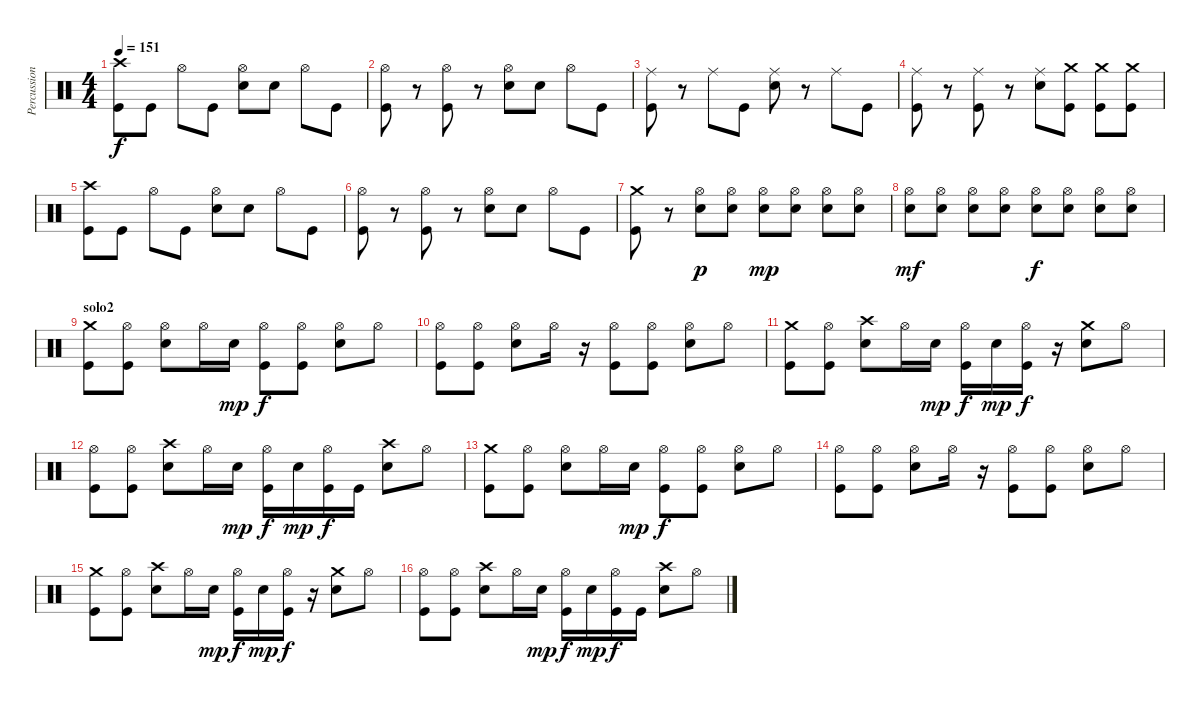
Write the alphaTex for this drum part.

\track ("Percussion" "Percussion") {instrument percussion}
\staff {score}
\articulation defaults
\ts (4 4)
\tempo 151
\clef neutral
\ks c
("Crash high (hit)" "Kick (hit)").8{dy f} "Kick (hit)".8 "Hi-Hat (open)".8 "Kick (hit)".8 ("Hi-Hat (open)" "Electric Snare (hit)").8 "Electric Snare (hit)".8 "Hi-Hat (open)".8 "Kick (hit)".8 |
("Hi-Hat (open)" "Kick (hit)").8 r.8 ("Hi-Hat (open)" "Kick (hit)").8 r.8 ("Hi-Hat (open)" "Electric Snare (hit)").8 "Electric Snare (hit)".8 "Hi-Hat (open)".8 "Kick (hit)".8 |
("Ride (middle)" "Kick (hit)").8 r.8 "Ride (middle)".8 "Kick (hit)".8 ("Ride (middle)" "Electric Snare (hit)").8 r.8 "Ride (middle)".8 "Kick (hit)".8 |
("Ride (middle)" "Kick (hit)").8 r.8 ("Ride (middle)" "Kick (hit)").8 r.8 ("Ride (middle)" "Electric Snare (hit)").8 ("Crash medium (hit)" "Kick (hit)").8 ("Crash medium (hit)" "Kick (hit)").8 ("Crash medium (hit)" "Kick (hit)").8 |
("Crash high (hit)" "Kick (hit)").8 "Kick (hit)".8 "Hi-Hat (open)".8 "Kick (hit)".8 ("Hi-Hat (open)" "Electric Snare (hit)").8 "Electric Snare (hit)".8 "Hi-Hat (open)".8 "Kick (hit)".8 |
("Hi-Hat (open)" "Kick (hit)").8 r.8 ("Hi-Hat (open)" "Kick (hit)").8 r.8 ("Hi-Hat (open)" "Electric Snare (hit)").8 "Electric Snare (hit)".8 "Hi-Hat (open)".8 "Kick (hit)".8 |
("Crash medium (hit)" "Kick (hit)").8 r.8 ("Hi-Hat (open)" "Electric Snare (hit)").8{dy p} ("Hi-Hat (open)" "Electric Snare (hit)").8 ("Hi-Hat (open)" "Electric Snare (hit)").8{dy mp} ("Hi-Hat (open)" "Electric Snare (hit)").8 ("Hi-Hat (open)" "Electric Snare (hit)").8 ("Hi-Hat (open)" "Electric Snare (hit)").8 |
("Hi-Hat (open)" "Electric Snare (hit)").8{dy mf} ("Hi-Hat (open)" "Electric Snare (hit)").8 ("Hi-Hat (open)" "Electric Snare (hit)").8 ("Hi-Hat (open)" "Electric Snare (hit)").8 ("Hi-Hat (open)" "Electric Snare (hit)").8{dy f} ("Hi-Hat (open)" "Electric Snare (hit)").8 ("Hi-Hat (open)" "Electric Snare (hit)").8 ("Hi-Hat (open)" "Electric Snare (hit)").8 |
\section ("" "solo2")
("Crash medium (hit)" "Kick (hit)").8 ("Hi-Hat (open)" "Kick (hit)").8 ("Hi-Hat (open)" "Electric Snare (hit)").8 "Hi-Hat (open)".16 "Electric Snare (hit)".16{dy mp} ("Hi-Hat (open)" "Kick (hit)").8{dy f} ("Hi-Hat (open)" "Kick (hit)").8 ("Hi-Hat (open)" "Electric Snare (hit)").8 "Hi-Hat (open)".8 |
("Hi-Hat (open)" "Kick (hit)").8 ("Hi-Hat (open)" "Kick (hit)").8 ("Hi-Hat (open)" "Electric Snare (hit)").8 "Hi-Hat (open)".16 r.16 ("Hi-Hat (open)" "Kick (hit)").8 ("Hi-Hat (open)" "Kick (hit)").8 ("Hi-Hat (open)" "Electric Snare (hit)").8 "Hi-Hat (open)".8 |
("Crash medium (hit)" "Kick (hit)").8 ("Hi-Hat (open)" "Kick (hit)").8 ("Crash high (hit)" "Electric Snare (hit)").8 "Hi-Hat (open)".16 "Electric Snare (hit)".16{dy mp} ("Hi-Hat (open)" "Kick (hit)").16{dy f} "Electric Snare (hit)".16{dy mp} ("Hi-Hat (open)" "Kick (hit)").16{dy f} r.16 ("Crash medium (hit)" "Electric Snare (hit)").8 "Hi-Hat (open)".8 |
("Hi-Hat (open)" "Kick (hit)").8 ("Hi-Hat (open)" "Kick (hit)").8 ("Crash high (hit)" "Electric Snare (hit)").8 "Hi-Hat (open)".16 "Electric Snare (hit)".16{dy mp} ("Hi-Hat (open)" "Kick (hit)").16{dy f} "Electric Snare (hit)".16{dy mp} ("Hi-Hat (open)" "Kick (hit)").16{dy f} "Kick (hit)".16 ("Crash high (hit)" "Electric Snare (hit)").8 "Hi-Hat (open)".8 |
("Crash medium (hit)" "Kick (hit)").8 ("Hi-Hat (open)" "Kick (hit)").8 ("Hi-Hat (open)" "Electric Snare (hit)").8 "Hi-Hat (open)".16 "Electric Snare (hit)".16{dy mp} ("Hi-Hat (open)" "Kick (hit)").8{dy f} ("Hi-Hat (open)" "Kick (hit)").8 ("Hi-Hat (open)" "Electric Snare (hit)").8 "Hi-Hat (open)".8 |
("Hi-Hat (open)" "Kick (hit)").8 ("Hi-Hat (open)" "Kick (hit)").8 ("Hi-Hat (open)" "Electric Snare (hit)").8 "Hi-Hat (open)".16 r.16 ("Hi-Hat (open)" "Kick (hit)").8 ("Hi-Hat (open)" "Kick (hit)").8 ("Hi-Hat (open)" "Electric Snare (hit)").8 "Hi-Hat (open)".8 |
("Crash medium (hit)" "Kick (hit)").8 ("Hi-Hat (open)" "Kick (hit)").8 ("Crash high (hit)" "Electric Snare (hit)").8 "Hi-Hat (open)".16 "Electric Snare (hit)".16{dy mp} ("Hi-Hat (open)" "Kick (hit)").16{dy f} "Electric Snare (hit)".16{dy mp} ("Hi-Hat (open)" "Kick (hit)").16{dy f} r.16 ("Crash medium (hit)" "Electric Snare (hit)").8 "Hi-Hat (open)".8 |
("Hi-Hat (open)" "Kick (hit)").8 ("Hi-Hat (open)" "Kick (hit)").8 ("Crash high (hit)" "Electric Snare (hit)").8 "Hi-Hat (open)".16 "Electric Snare (hit)".16{dy mp} ("Hi-Hat (open)" "Kick (hit)").16{dy f} "Electric Snare (hit)".16{dy mp} ("Hi-Hat (open)" "Kick (hit)").16{dy f} "Kick (hit)".16 ("Crash high (hit)" "Electric Snare (hit)").8 "Hi-Hat (open)".8
